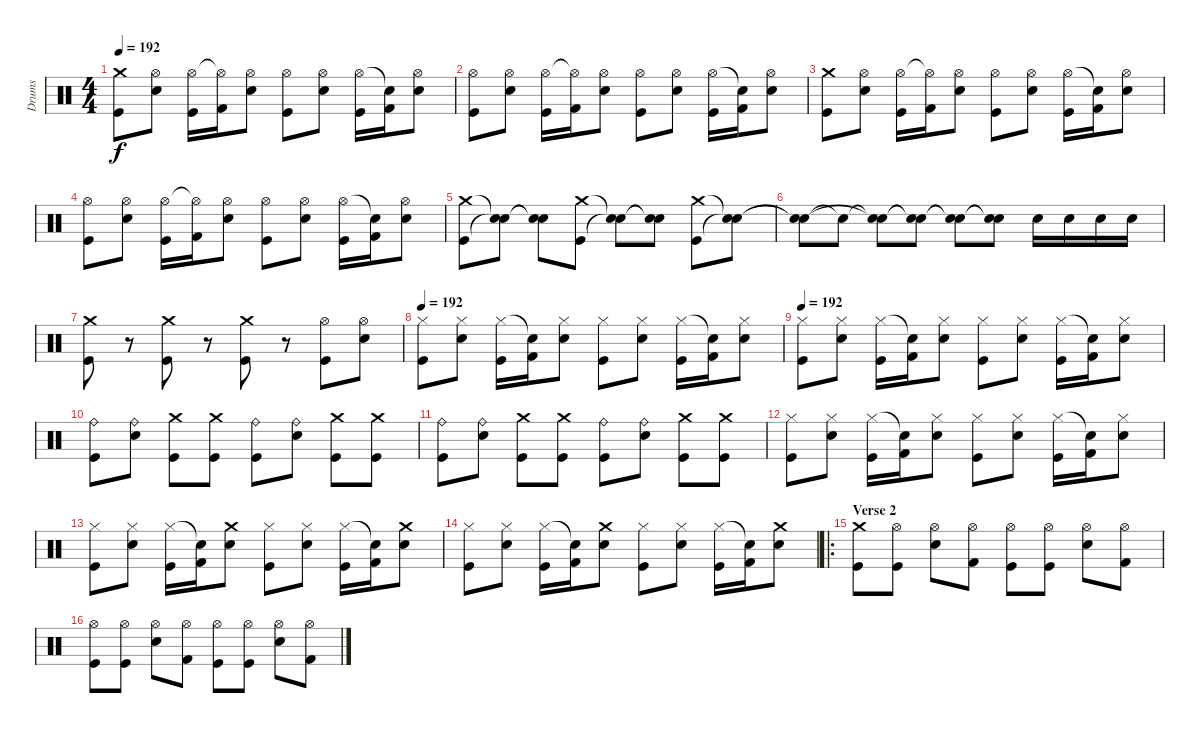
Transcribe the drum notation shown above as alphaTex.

\track ("Drums" "Drums") {instrument percussion}
\staff {score}
\articulation defaults
\ts (4 4)
\tempo 192
\clef neutral
\ks c
("Crash medium (hit)" "Kick (hit)").8{dy f} ("Hi-Hat (open)" "Electric Snare (hit)").8 ("Hi-Hat (open)" "Kick (hit)").16 ("Hi-Hat (open)"{t} "Kick (hit) 2").16 ("Hi-Hat (open)" "Electric Snare (hit)").8 ("Hi-Hat (open)" "Kick (hit)").8 ("Hi-Hat (open)" "Electric Snare (hit)").8 ("Hi-Hat (open)" "Kick (hit)").16 ("Snare (hit)"{t} "Kick (hit) 2").16 ("Hi-Hat (open)" "Electric Snare (hit)").8 |
("Hi-Hat (open)" "Kick (hit)").8 ("Hi-Hat (open)" "Electric Snare (hit)").8 ("Hi-Hat (open)" "Kick (hit)").16 ("Hi-Hat (open)"{t} "Kick (hit) 2").16 ("Hi-Hat (open)" "Electric Snare (hit)").8 ("Hi-Hat (open)" "Kick (hit)").8 ("Hi-Hat (open)" "Electric Snare (hit)").8 ("Hi-Hat (open)" "Kick (hit)").16 ("Snare (hit)"{t} "Kick (hit) 2").16 ("Hi-Hat (open)" "Electric Snare (hit)").8 |
("Crash medium (hit)" "Kick (hit)").8 ("Hi-Hat (open)" "Electric Snare (hit)").8 ("Hi-Hat (open)" "Kick (hit)").16 ("Hi-Hat (open)"{t} "Kick (hit) 2").16 ("Hi-Hat (open)" "Electric Snare (hit)").8 ("Hi-Hat (open)" "Kick (hit)").8 ("Hi-Hat (open)" "Electric Snare (hit)").8 ("Hi-Hat (open)" "Kick (hit)").16 ("Snare (hit)"{t} "Kick (hit) 2").16 ("Hi-Hat (open)" "Electric Snare (hit)").8 |
("Hi-Hat (open)" "Kick (hit)").8 ("Hi-Hat (open)" "Electric Snare (hit)").8 ("Hi-Hat (open)" "Kick (hit)").16 ("Hi-Hat (open)"{t} "Kick (hit) 2").16 ("Hi-Hat (open)" "Electric Snare (hit)").8 ("Hi-Hat (open)" "Kick (hit)").8 ("Hi-Hat (open)" "Electric Snare (hit)").8 ("Hi-Hat (open)" "Kick (hit)").16 ("Snare (hit)"{t} "Kick (hit) 2").16 ("Hi-Hat (open)" "Electric Snare (hit)").8 |
("Crash medium (hit)" "Kick (hit)").8 ("Snare (hit)"{t} "Snare (hit)"{t}).8 ("Snare (hit)"{t} "Snare (hit)"{t}).8 ("Crash medium (hit)" "Kick (hit)").8 ("Snare (hit)"{t} "Snare (hit)"{t}).8 ("Snare (hit)"{t} "Snare (hit)"{t}).8 ("Crash medium (hit)" "Kick (hit)").8 ("Snare (hit)"{t} "Snare (hit)"{t}).8 |
("Snare (hit)"{t} "Snare (hit)"{t}).8 "Snare (hit)"{t}.8 ("Snare (hit)"{t} "Snare (hit)"{t}).8 ("Snare (hit)"{t} "Snare (hit)"{t}).8 ("Snare (hit)"{t} "Snare (hit)"{t}).8 ("Snare (hit)"{t} "Snare (hit)"{t}).8 "Electric Snare (hit)".16 "Electric Snare (hit)".16 "Electric Snare (hit)".16 "Electric Snare (hit)".16 |
("Crash medium (hit)" "Kick (hit)").8 r.8 ("Crash medium (hit)" "Kick (hit)").8 r.8 ("Crash medium (hit)" "Kick (hit)").8 r.8 ("Hi-Hat (open)" "Kick (hit)").8 ("Hi-Hat (open)" "Electric Snare (hit)").8 |
\tempo 192
("Hi-Hat (closed)" "Kick (hit)").8 ("Hi-Hat (closed)" "Electric Snare (hit)").8 ("Hi-Hat (closed)" "Kick (hit)").16 ("Snare (hit)"{t} "Kick (hit) 2").16 ("Hi-Hat (closed)" "Electric Snare (hit)").8 ("Hi-Hat (closed)" "Kick (hit)").8 ("Hi-Hat (closed)" "Electric Snare (hit)").8 ("Hi-Hat (closed)" "Kick (hit)").16 ("Snare (hit)"{t} "Kick (hit) 2").16 ("Hi-Hat (closed)" "Electric Snare (hit)").8 |
\tempo 192
("Hi-Hat (closed)" "Kick (hit)").8 ("Hi-Hat (closed)" "Electric Snare (hit)").8 ("Hi-Hat (closed)" "Kick (hit)").16 ("Snare (hit)"{t} "Kick (hit) 2").16 ("Hi-Hat (closed)" "Electric Snare (hit)").8 ("Hi-Hat (closed)" "Kick (hit)").8 ("Hi-Hat (closed)" "Electric Snare (hit)").8 ("Hi-Hat (closed)" "Kick (hit)").16 ("Snare (hit)"{t} "Kick (hit) 2").16 ("Hi-Hat (closed)" "Electric Snare (hit)").8 |
("Ride (bell)" "Kick (hit)").8 ("Ride (bell)" "Electric Snare (hit)").8 ("Crash medium (hit)" "Kick (hit)").8 ("Crash medium (hit)" "Kick (hit)").8 ("Ride (bell)" "Kick (hit)").8 ("Ride (bell)" "Electric Snare (hit)").8 ("Crash medium (hit)" "Kick (hit)").8 ("Crash medium (hit)" "Kick (hit)").8 |
("Ride (bell)" "Kick (hit)").8 ("Ride (bell)" "Electric Snare (hit)").8 ("Crash medium (hit)" "Kick (hit)").8 ("Crash medium (hit)" "Kick (hit)").8 ("Ride (bell)" "Kick (hit)").8 ("Ride (bell)" "Electric Snare (hit)").8 ("Crash medium (hit)" "Kick (hit)").8 ("Crash medium (hit)" "Kick (hit)").8 |
("Hi-Hat (closed)" "Kick (hit)").8 ("Hi-Hat (closed)" "Electric Snare (hit)").8 ("Hi-Hat (closed)" "Kick (hit)").16 ("Snare (hit)"{t} "Kick (hit) 2").16 ("Hi-Hat (closed)" "Electric Snare (hit)").8 ("Hi-Hat (closed)" "Kick (hit)").8 ("Hi-Hat (closed)" "Electric Snare (hit)").8 ("Hi-Hat (closed)" "Kick (hit)").16 ("Snare (hit)"{t} "Kick (hit) 2").16 ("Hi-Hat (closed)" "Electric Snare (hit)").8 |
("Hi-Hat (closed)" "Kick (hit)").8 ("Hi-Hat (closed)" "Electric Snare (hit)").8 ("Hi-Hat (closed)" "Kick (hit)").16 ("Snare (hit)"{t} "Kick (hit) 2").16 ("Crash medium (hit)" "Electric Snare (hit)").8 ("Hi-Hat (closed)" "Kick (hit)").8 ("Hi-Hat (closed)" "Electric Snare (hit)").8 ("Hi-Hat (closed)" "Kick (hit)").16 ("Snare (hit)"{t} "Kick (hit) 2").16 ("Crash medium (hit)" "Electric Snare (hit)").8 |
("Hi-Hat (closed)" "Kick (hit)").8 ("Hi-Hat (closed)" "Electric Snare (hit)").8 ("Hi-Hat (closed)" "Kick (hit)").16 ("Snare (hit)"{t} "Kick (hit) 2").16 ("Crash medium (hit)" "Electric Snare (hit)").8 ("Hi-Hat (closed)" "Kick (hit)").8 ("Hi-Hat (closed)" "Electric Snare (hit)").8 ("Hi-Hat (closed)" "Kick (hit)").16 ("Snare (hit)"{t} "Kick (hit) 2").16 ("Crash medium (hit)" "Electric Snare (hit)").8 |
\ro
\section ("" "Verse 2")
("Crash medium (hit)" "Kick (hit)").8 ("Hi-Hat (open)" "Kick (hit)").8 ("Hi-Hat (open)" "Electric Snare (hit)").8 ("Hi-Hat (open)" "Kick (hit) 2").8 ("Hi-Hat (open)" "Kick (hit)").8 ("Hi-Hat (open)" "Kick (hit)").8 ("Hi-Hat (open)" "Electric Snare (hit)").8 ("Hi-Hat (open)" "Kick (hit) 2").8 |
("Hi-Hat (open)" "Kick (hit)").8 ("Hi-Hat (open)" "Kick (hit)").8 ("Hi-Hat (open)" "Electric Snare (hit)").8 ("Hi-Hat (open)" "Kick (hit) 2").8 ("Hi-Hat (open)" "Kick (hit)").8 ("Hi-Hat (open)" "Kick (hit)").8 ("Hi-Hat (open)" "Electric Snare (hit)").8 ("Hi-Hat (open)" "Kick (hit) 2").8
